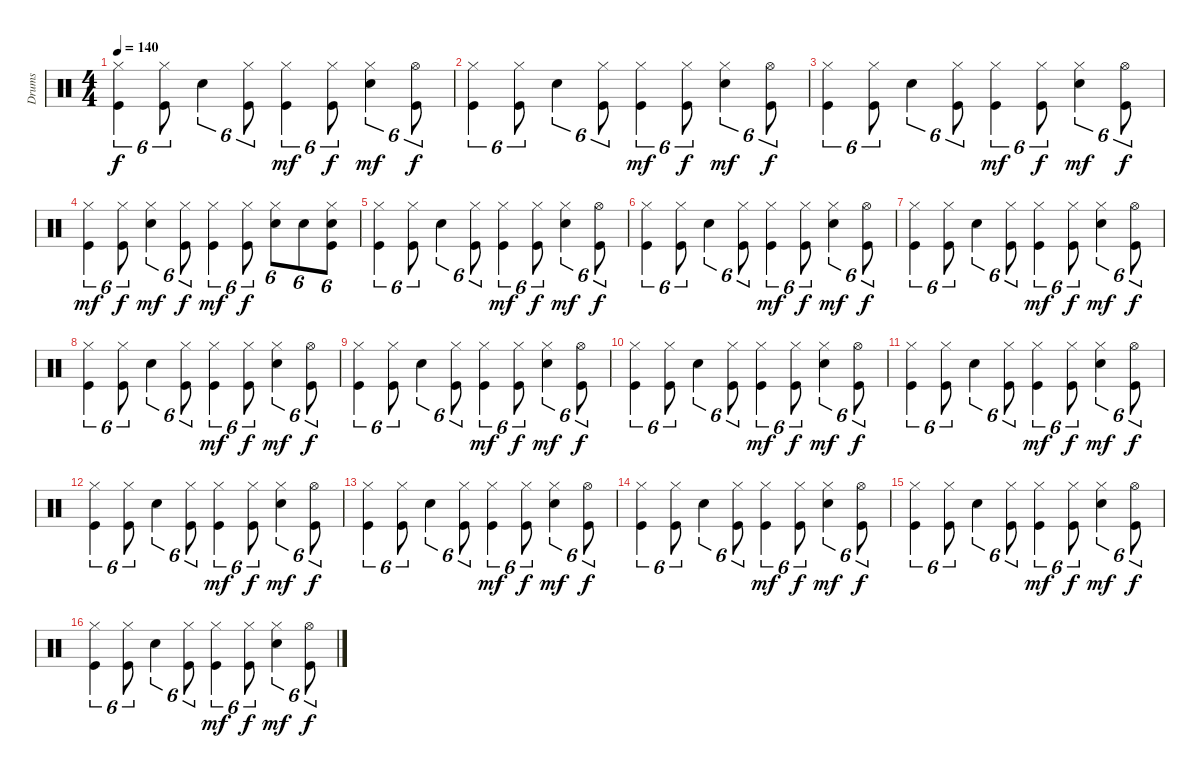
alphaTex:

\track ("Drums" "Drums") {instrument percussion}
\staff {score}
\articulation defaults
\ts (4 4)
\tempo 140
\clef neutral
\ks c
("Kick (hit)" "Hi-Hat (closed)").4{tu (6 4) dy f} ("Kick (hit)" "Hi-Hat (closed)").8{tu (6 4)} "Electric Snare (hit)".4{tu (6 4)} ("Kick (hit)" "Hi-Hat (closed)").8{tu (6 4)} ("Kick (hit)" "Hi-Hat (closed)").4{tu (6 4) dy mf} ("Kick (hit)" "Hi-Hat (closed)").8{tu (6 4) dy f} ("Electric Snare (hit)" "Hi-Hat (closed)").4{tu (6 4) dy mf} ("Kick (hit)" "Hi-Hat (open)").8{tu (6 4) dy f} |
("Kick (hit)" "Hi-Hat (closed)").4{tu (6 4)} ("Kick (hit)" "Hi-Hat (closed)").8{tu (6 4)} "Electric Snare (hit)".4{tu (6 4)} ("Kick (hit)" "Hi-Hat (closed)").8{tu (6 4)} ("Kick (hit)" "Hi-Hat (closed)").4{tu (6 4) dy mf} ("Kick (hit)" "Hi-Hat (closed)").8{tu (6 4) dy f} ("Electric Snare (hit)" "Hi-Hat (closed)").4{tu (6 4) dy mf} ("Kick (hit)" "Hi-Hat (open)").8{tu (6 4) dy f} |
("Kick (hit)" "Hi-Hat (closed)").4{tu (6 4)} ("Kick (hit)" "Hi-Hat (closed)").8{tu (6 4)} "Electric Snare (hit)".4{tu (6 4)} ("Kick (hit)" "Hi-Hat (closed)").8{tu (6 4)} ("Kick (hit)" "Hi-Hat (closed)").4{tu (6 4) dy mf} ("Kick (hit)" "Hi-Hat (closed)").8{tu (6 4) dy f} ("Electric Snare (hit)" "Hi-Hat (closed)").4{tu (6 4) dy mf} ("Kick (hit)" "Hi-Hat (open)").8{tu (6 4) dy f} |
("Kick (hit)" "Hi-Hat (closed)").4{tu (6 4) dy mf} ("Kick (hit)" "Hi-Hat (closed)").8{tu (6 4) dy f} ("Electric Snare (hit)" "Hi-Hat (closed)").4{tu (6 4) dy mf} ("Kick (hit)" "Hi-Hat (closed)").8{tu (6 4) dy f} ("Kick (hit)" "Hi-Hat (closed)").4{tu (6 4) dy mf} ("Kick (hit)" "Hi-Hat (closed)").8{tu (6 4) dy f} ("Electric Snare (hit)" "Hi-Hat (closed)").8{tu (6 4)} "Electric Snare (hit)".8{tu (6 4)} ("Kick (hit)" "Snare (hit) 2" "Hi-Hat (closed)").8{tu (6 4)} |
("Kick (hit)" "Hi-Hat (closed)").4{tu (6 4)} ("Kick (hit)" "Hi-Hat (closed)").8{tu (6 4)} "Electric Snare (hit)".4{tu (6 4)} ("Kick (hit)" "Hi-Hat (closed)").8{tu (6 4)} ("Kick (hit)" "Hi-Hat (closed)").4{tu (6 4) dy mf} ("Kick (hit)" "Hi-Hat (closed)").8{tu (6 4) dy f} ("Electric Snare (hit)" "Hi-Hat (closed)").4{tu (6 4) dy mf} ("Kick (hit)" "Hi-Hat (open)").8{tu (6 4) dy f} |
("Kick (hit)" "Hi-Hat (closed)").4{tu (6 4)} ("Kick (hit)" "Hi-Hat (closed)").8{tu (6 4)} "Electric Snare (hit)".4{tu (6 4)} ("Kick (hit)" "Hi-Hat (closed)").8{tu (6 4)} ("Kick (hit)" "Hi-Hat (closed)").4{tu (6 4) dy mf} ("Kick (hit)" "Hi-Hat (closed)").8{tu (6 4) dy f} ("Electric Snare (hit)" "Hi-Hat (closed)").4{tu (6 4) dy mf} ("Kick (hit)" "Hi-Hat (open)").8{tu (6 4) dy f} |
("Kick (hit)" "Hi-Hat (closed)").4{tu (6 4)} ("Kick (hit)" "Hi-Hat (closed)").8{tu (6 4)} "Electric Snare (hit)".4{tu (6 4)} ("Kick (hit)" "Hi-Hat (closed)").8{tu (6 4)} ("Kick (hit)" "Hi-Hat (closed)").4{tu (6 4) dy mf} ("Kick (hit)" "Hi-Hat (closed)").8{tu (6 4) dy f} ("Electric Snare (hit)" "Hi-Hat (closed)").4{tu (6 4) dy mf} ("Kick (hit)" "Hi-Hat (open)").8{tu (6 4) dy f} |
("Kick (hit)" "Hi-Hat (closed)").4{tu (6 4)} ("Kick (hit)" "Hi-Hat (closed)").8{tu (6 4)} "Electric Snare (hit)".4{tu (6 4)} ("Kick (hit)" "Hi-Hat (closed)").8{tu (6 4)} ("Kick (hit)" "Hi-Hat (closed)").4{tu (6 4) dy mf} ("Kick (hit)" "Hi-Hat (closed)").8{tu (6 4) dy f} ("Electric Snare (hit)" "Hi-Hat (closed)").4{tu (6 4) dy mf} ("Kick (hit)" "Hi-Hat (open)").8{tu (6 4) dy f} |
("Kick (hit)" "Hi-Hat (closed)").4{tu (6 4)} ("Kick (hit)" "Hi-Hat (closed)").8{tu (6 4)} "Electric Snare (hit)".4{tu (6 4)} ("Kick (hit)" "Hi-Hat (closed)").8{tu (6 4)} ("Kick (hit)" "Hi-Hat (closed)").4{tu (6 4) dy mf} ("Kick (hit)" "Hi-Hat (closed)").8{tu (6 4) dy f} ("Electric Snare (hit)" "Hi-Hat (closed)").4{tu (6 4) dy mf} ("Kick (hit)" "Hi-Hat (open)").8{tu (6 4) dy f} |
("Kick (hit)" "Hi-Hat (closed)").4{tu (6 4)} ("Kick (hit)" "Hi-Hat (closed)").8{tu (6 4)} "Electric Snare (hit)".4{tu (6 4)} ("Kick (hit)" "Hi-Hat (closed)").8{tu (6 4)} ("Kick (hit)" "Hi-Hat (closed)").4{tu (6 4) dy mf} ("Kick (hit)" "Hi-Hat (closed)").8{tu (6 4) dy f} ("Electric Snare (hit)" "Hi-Hat (closed)").4{tu (6 4) dy mf} ("Kick (hit)" "Hi-Hat (open)").8{tu (6 4) dy f} |
("Kick (hit)" "Hi-Hat (closed)").4{tu (6 4)} ("Kick (hit)" "Hi-Hat (closed)").8{tu (6 4)} "Electric Snare (hit)".4{tu (6 4)} ("Kick (hit)" "Hi-Hat (closed)").8{tu (6 4)} ("Kick (hit)" "Hi-Hat (closed)").4{tu (6 4) dy mf} ("Kick (hit)" "Hi-Hat (closed)").8{tu (6 4) dy f} ("Electric Snare (hit)" "Hi-Hat (closed)").4{tu (6 4) dy mf} ("Kick (hit)" "Hi-Hat (open)").8{tu (6 4) dy f} |
("Kick (hit)" "Hi-Hat (closed)").4{tu (6 4)} ("Kick (hit)" "Hi-Hat (closed)").8{tu (6 4)} "Electric Snare (hit)".4{tu (6 4)} ("Kick (hit)" "Hi-Hat (closed)").8{tu (6 4)} ("Kick (hit)" "Hi-Hat (closed)").4{tu (6 4) dy mf} ("Kick (hit)" "Hi-Hat (closed)").8{tu (6 4) dy f} ("Electric Snare (hit)" "Hi-Hat (closed)").4{tu (6 4) dy mf} ("Kick (hit)" "Hi-Hat (open)").8{tu (6 4) dy f} |
("Kick (hit)" "Hi-Hat (closed)").4{tu (6 4)} ("Kick (hit)" "Hi-Hat (closed)").8{tu (6 4)} "Electric Snare (hit)".4{tu (6 4)} ("Kick (hit)" "Hi-Hat (closed)").8{tu (6 4)} ("Kick (hit)" "Hi-Hat (closed)").4{tu (6 4) dy mf} ("Kick (hit)" "Hi-Hat (closed)").8{tu (6 4) dy f} ("Electric Snare (hit)" "Hi-Hat (closed)").4{tu (6 4) dy mf} ("Kick (hit)" "Hi-Hat (open)").8{tu (6 4) dy f} |
("Kick (hit)" "Hi-Hat (closed)").4{tu (6 4)} ("Kick (hit)" "Hi-Hat (closed)").8{tu (6 4)} "Electric Snare (hit)".4{tu (6 4)} ("Kick (hit)" "Hi-Hat (closed)").8{tu (6 4)} ("Kick (hit)" "Hi-Hat (closed)").4{tu (6 4) dy mf} ("Kick (hit)" "Hi-Hat (closed)").8{tu (6 4) dy f} ("Electric Snare (hit)" "Hi-Hat (closed)").4{tu (6 4) dy mf} ("Kick (hit)" "Hi-Hat (open)").8{tu (6 4) dy f} |
("Kick (hit)" "Hi-Hat (closed)").4{tu (6 4)} ("Kick (hit)" "Hi-Hat (closed)").8{tu (6 4)} "Electric Snare (hit)".4{tu (6 4)} ("Kick (hit)" "Hi-Hat (closed)").8{tu (6 4)} ("Kick (hit)" "Hi-Hat (closed)").4{tu (6 4) dy mf} ("Kick (hit)" "Hi-Hat (closed)").8{tu (6 4) dy f} ("Electric Snare (hit)" "Hi-Hat (closed)").4{tu (6 4) dy mf} ("Kick (hit)" "Hi-Hat (open)").8{tu (6 4) dy f} |
("Kick (hit)" "Hi-Hat (closed)").4{tu (6 4)} ("Kick (hit)" "Hi-Hat (closed)").8{tu (6 4)} "Electric Snare (hit)".4{tu (6 4)} ("Kick (hit)" "Hi-Hat (closed)").8{tu (6 4)} ("Kick (hit)" "Hi-Hat (closed)").4{tu (6 4) dy mf} ("Kick (hit)" "Hi-Hat (closed)").8{tu (6 4) dy f} ("Electric Snare (hit)" "Hi-Hat (closed)").4{tu (6 4) dy mf} ("Kick (hit)" "Hi-Hat (open)").8{tu (6 4) dy f}
